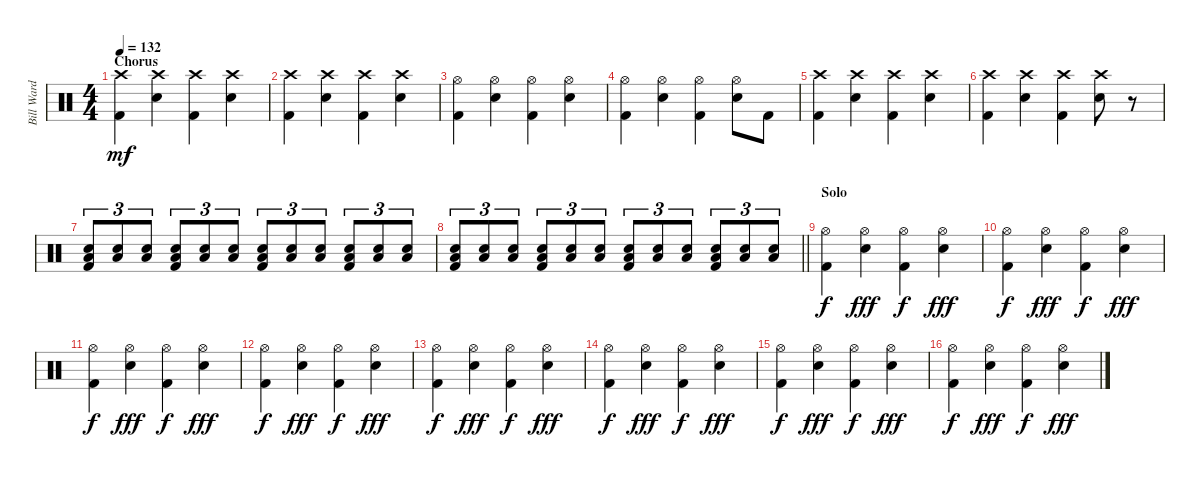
\track ("Bill Ward" "Bill Ward") {instrument percussion}
\staff {score}
\articulation defaults
\ts (4 4)
\section ("" "Chorus")
\tempo 132
\clef neutral
\ks c
("Crash high (hit)" "Kick (hit) 2").4{dy mf} ("Crash high (hit)" "Snare (hit) 2").4 ("Crash high (hit)" "Kick (hit) 2").4 ("Crash high (hit)" "Snare (hit) 2").4 |
("Crash high (hit)" "Kick (hit) 2").4 ("Crash high (hit)" "Snare (hit) 2").4 ("Crash high (hit)" "Kick (hit) 2").4 ("Crash high (hit)" "Snare (hit) 2").4 |
("Hi-Hat (open)" "Kick (hit) 2").4 ("Hi-Hat (open)" "Snare (hit) 2").4 ("Hi-Hat (open)" "Kick (hit) 2").4 ("Hi-Hat (open)" "Snare (hit) 2").4 |
("Hi-Hat (open)" "Kick (hit) 2").4 ("Hi-Hat (open)" "Snare (hit) 2").4 ("Hi-Hat (open)" "Kick (hit) 2").4 ("Hi-Hat (open)" "Snare (hit) 2").8 "Kick (hit) 2".8 |
("Crash high (hit)" "Kick (hit) 2").4 ("Crash high (hit)" "Snare (hit) 2").4 ("Crash high (hit)" "Kick (hit) 2").4 ("Crash high (hit)" "Snare (hit) 2").4 |
("Crash high (hit)" "Kick (hit) 2").4 ("Crash high (hit)" "Snare (hit) 2").4 ("Crash high (hit)" "Kick (hit) 2").4 ("Crash high (hit)" "Snare (hit) 2").8 r.8{volume 2} |
("Low Tom (hit)" "Snare (hit) 2" "Kick (hit) 2").8{tu (3 2) volume 13} ("Low Tom (hit)" "Snare (hit) 2").8{tu (3 2)} ("Low Tom (hit)" "Snare (hit) 2").8{tu (3 2)} ("Low Tom (hit)" "Snare (hit) 2" "Kick (hit) 2").8{tu (3 2)} ("Low Tom (hit)" "Snare (hit) 2").8{tu (3 2)} ("Low Tom (hit)" "Snare (hit) 2").8{tu (3 2)} ("Low Tom (hit)" "Snare (hit) 2" "Kick (hit) 2").8{tu (3 2)} ("Low Tom (hit)" "Snare (hit) 2").8{tu (3 2)} ("Low Tom (hit)" "Snare (hit) 2").8{tu (3 2)} ("Low Tom (hit)" "Snare (hit) 2" "Kick (hit) 2").8{tu (3 2)} ("Low Tom (hit)" "Snare (hit) 2").8{tu (3 2)} ("Low Tom (hit)" "Snare (hit) 2").8{tu (3 2)} |
\barLineRight lightlight
("Low Tom (hit)" "Snare (hit) 2" "Kick (hit) 2").8{tu (3 2)} ("Low Tom (hit)" "Snare (hit) 2").8{tu (3 2)} ("Low Tom (hit)" "Snare (hit) 2").8{tu (3 2)} ("Low Tom (hit)" "Snare (hit) 2" "Kick (hit) 2").8{tu (3 2)} ("Low Tom (hit)" "Snare (hit) 2").8{tu (3 2)} ("Low Tom (hit)" "Snare (hit) 2").8{tu (3 2)} ("Low Tom (hit)" "Snare (hit) 2" "Kick (hit) 2").8{tu (3 2)} ("Low Tom (hit)" "Snare (hit) 2").8{tu (3 2)} ("Low Tom (hit)" "Snare (hit) 2").8{tu (3 2)} ("Low Tom (hit)" "Snare (hit) 2" "Kick (hit) 2").8{tu (3 2)} ("Low Tom (hit)" "Snare (hit) 2").8{tu (3 2)} ("Low Tom (hit)" "Snare (hit) 2").8{tu (3 2)} |
\section ("" "Solo")
("Hi-Hat (open)" "Kick (hit) 2").4{dy f} ("Hi-Hat (open)" "Snare (hit) 2").4{dy fff} ("Hi-Hat (open)" "Kick (hit) 2").4{dy f} ("Hi-Hat (open)" "Snare (hit) 2").4{dy fff} |
("Hi-Hat (open)" "Kick (hit) 2").4{dy f} ("Hi-Hat (open)" "Snare (hit) 2").4{dy fff} ("Hi-Hat (open)" "Kick (hit) 2").4{dy f} ("Hi-Hat (open)" "Snare (hit) 2").4{dy fff} |
("Hi-Hat (open)" "Kick (hit) 2").4{dy f} ("Hi-Hat (open)" "Snare (hit) 2").4{dy fff} ("Hi-Hat (open)" "Kick (hit) 2").4{dy f} ("Hi-Hat (open)" "Snare (hit) 2").4{dy fff} |
("Hi-Hat (open)" "Kick (hit) 2").4{dy f} ("Hi-Hat (open)" "Snare (hit) 2").4{dy fff} ("Hi-Hat (open)" "Kick (hit) 2").4{dy f} ("Hi-Hat (open)" "Snare (hit) 2").4{dy fff} |
("Hi-Hat (open)" "Kick (hit) 2").4{dy f} ("Hi-Hat (open)" "Snare (hit) 2").4{dy fff} ("Hi-Hat (open)" "Kick (hit) 2").4{dy f} ("Hi-Hat (open)" "Snare (hit) 2").4{dy fff} |
("Hi-Hat (open)" "Kick (hit) 2").4{dy f} ("Hi-Hat (open)" "Snare (hit) 2").4{dy fff} ("Hi-Hat (open)" "Kick (hit) 2").4{dy f} ("Hi-Hat (open)" "Snare (hit) 2").4{dy fff} |
("Hi-Hat (open)" "Kick (hit) 2").4{dy f} ("Hi-Hat (open)" "Snare (hit) 2").4{dy fff} ("Hi-Hat (open)" "Kick (hit) 2").4{dy f} ("Hi-Hat (open)" "Snare (hit) 2").4{dy fff} |
("Hi-Hat (open)" "Kick (hit) 2").4{dy f} ("Hi-Hat (open)" "Snare (hit) 2").4{dy fff} ("Hi-Hat (open)" "Kick (hit) 2").4{dy f} ("Hi-Hat (open)" "Snare (hit) 2").4{dy fff}
